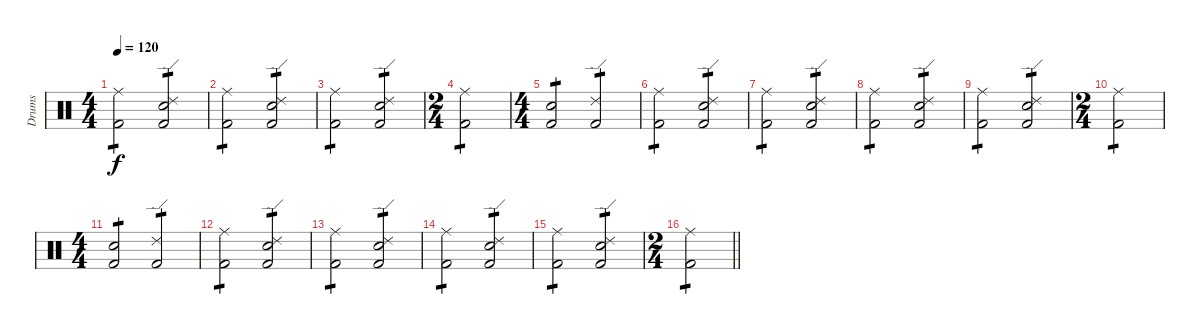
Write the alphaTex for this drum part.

\track ("Drums " "Drums ") {instrument percussion}
\staff {score}
\articulation defaults
\ts (4 4)
\tempo 120
\clef neutral
\ks c
("Ride (middle)" "Kick (hit) 2").2{tp 1 dy f} ("Ride (edge) 2" "Snare (hit) 2" "Kick (hit) 2").2{tp 1} |
("Ride (middle)" "Kick (hit) 2").2{tp 1} ("Ride (edge) 2" "Snare (hit) 2" "Kick (hit) 2").2{tp 1} |
("Ride (middle)" "Kick (hit) 2").2{tp 1} ("Ride (edge) 2" "Snare (hit) 2" "Kick (hit) 2").2{tp 1} |
\ts (2 4)
("Ride (middle)" "Kick (hit) 2").2{tp 1} |
\ts (4 4)
("Snare (hit) 2" "Kick (hit) 2").2{tp 1} ("Ride (edge) 2" "Kick (hit) 2").2{tp 1} |
("Ride (middle)" "Kick (hit) 2").2{tp 1} ("Ride (edge) 2" "Snare (hit) 2" "Kick (hit) 2").2{tp 1} |
("Ride (middle)" "Kick (hit) 2").2{tp 1} ("Ride (edge) 2" "Snare (hit) 2" "Kick (hit) 2").2{tp 1} |
("Ride (middle)" "Kick (hit) 2").2{tp 1} ("Ride (edge) 2" "Snare (hit) 2" "Kick (hit) 2").2{tp 1} |
("Ride (middle)" "Kick (hit) 2").2{tp 1} ("Ride (edge) 2" "Snare (hit) 2" "Kick (hit) 2").2{tp 1} |
\ts (2 4)
("Ride (middle)" "Kick (hit) 2").2{tp 1} |
\ts (4 4)
("Snare (hit) 2" "Kick (hit) 2").2{tp 1} ("Ride (edge) 2" "Kick (hit) 2").2{tp 1} |
("Ride (middle)" "Kick (hit) 2").2{tp 1} ("Ride (edge) 2" "Snare (hit) 2" "Kick (hit) 2").2{tp 1} |
("Ride (middle)" "Kick (hit) 2").2{tp 1} ("Ride (edge) 2" "Snare (hit) 2" "Kick (hit) 2").2{tp 1} |
("Ride (middle)" "Kick (hit) 2").2{tp 1} ("Ride (edge) 2" "Snare (hit) 2" "Kick (hit) 2").2{tp 1} |
("Ride (middle)" "Kick (hit) 2").2{tp 1} ("Ride (edge) 2" "Snare (hit) 2" "Kick (hit) 2").2{tp 1} |
\ts (2 4)
\barLineRight lightlight
("Ride (middle)" "Kick (hit) 2").2{tp 1}
